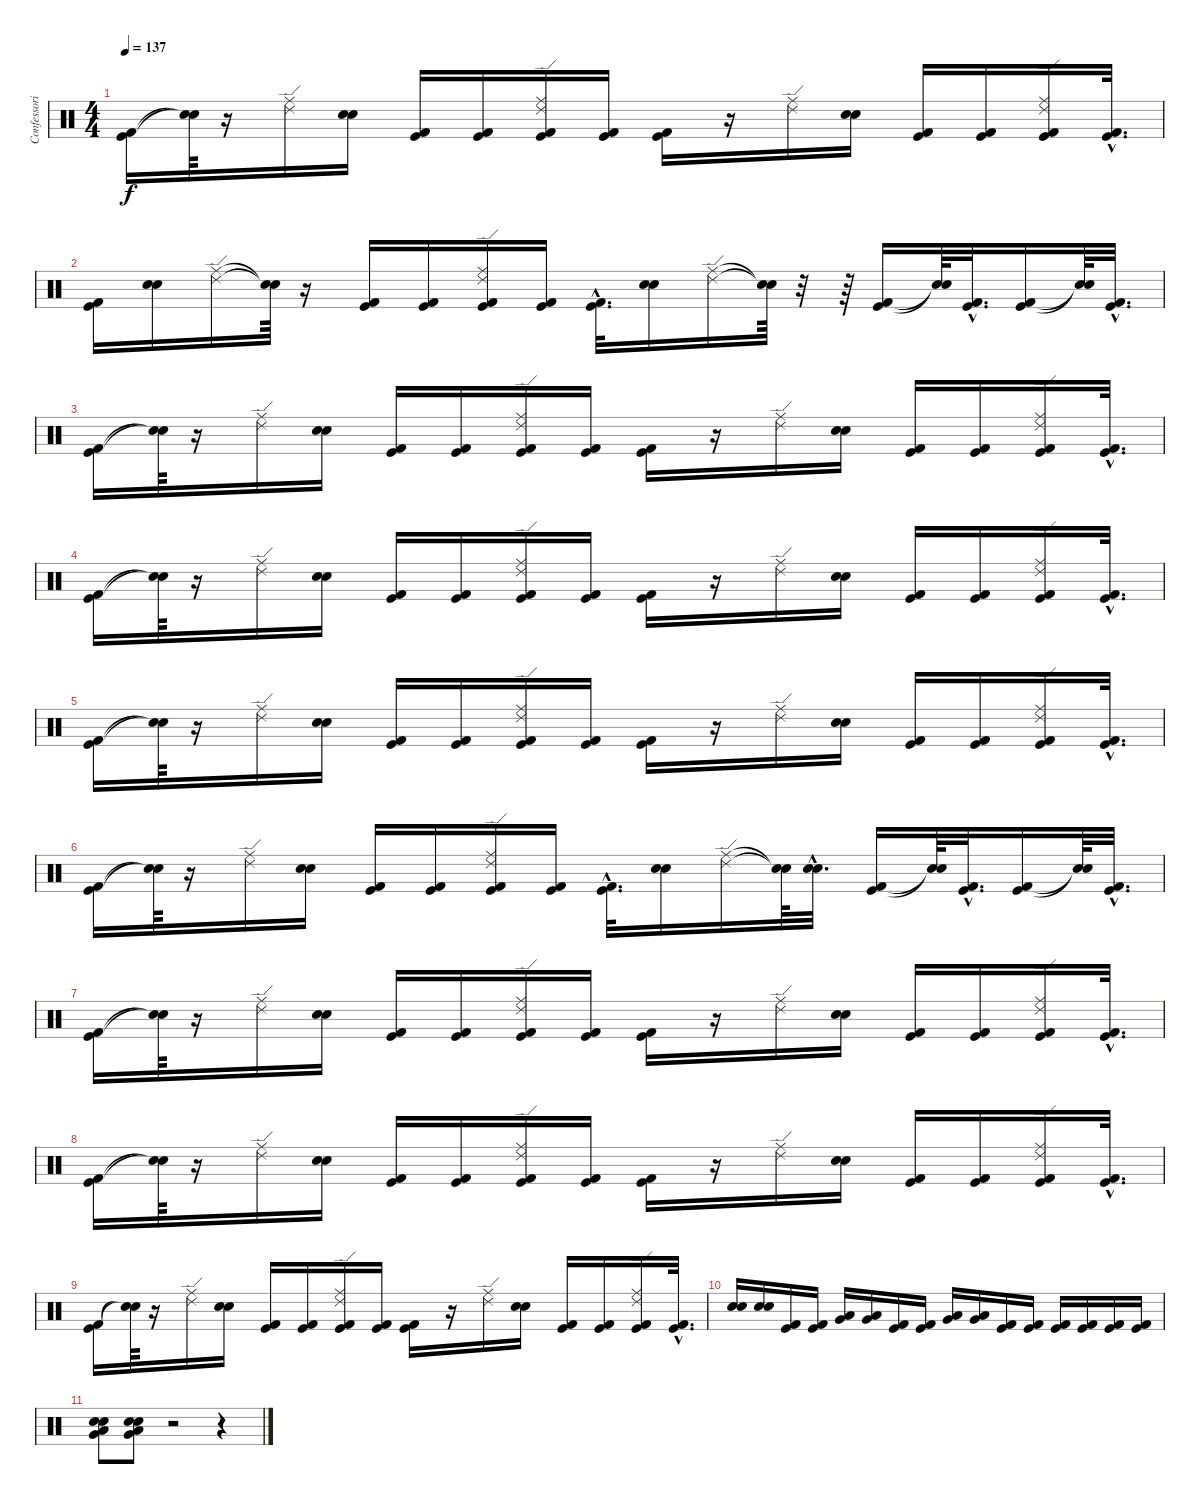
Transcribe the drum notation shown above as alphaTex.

\track ("Confessori" "Confessori") {instrument percussion}
\staff {score}
\articulation defaults
\ts (4 4)
\tempo 137
\clef neutral
\ks c
("Kick (hit) 2" "Kick (hit)").16{dy f} ("Snare (hit)"{t} "Snare (hit)"{t}).64 r.16 ("Ride (middle)" "Ride (edge) 2").16 ("Electric Snare (hit)" "Snare (hit) 2").16 ("Kick (hit) 2" "Kick (hit)").16 ("Kick (hit) 2" "Kick (hit)").16 ("Ride (middle)" "Ride (edge) 2" "Kick (hit) 2" "Kick (hit)").16 ("Kick (hit) 2" "Kick (hit)").16 ("Kick (hit) 2" "Kick (hit)").16 r.16 ("Ride (middle)" "Ride (edge) 2").16 ("Electric Snare (hit)" "Snare (hit) 2").16 ("Kick (hit) 2" "Kick (hit)").16 ("Kick (hit) 2" "Kick (hit)").16 ("Ride (middle)" "Ride (edge) 2" "Kick (hit) 2" "Kick (hit)").16 ("Kick (hit) 2"{hac} "Kick (hit)"{hac}).32{d} |
("Kick (hit) 2" "Kick (hit)").16 ("Electric Snare (hit)" "Snare (hit) 2").16 ("Ride (middle)" "Ride (edge) 2").16 ("Snare (hit)"{t} "Snare (hit)"{t}).64 r.16 ("Kick (hit) 2" "Kick (hit)").16 ("Kick (hit) 2" "Kick (hit)").16 ("Ride (middle)" "Ride (edge) 2" "Kick (hit) 2" "Kick (hit)").16 ("Kick (hit) 2" "Kick (hit)").16 ("Kick (hit) 2"{hac} "Kick (hit)"{hac}).32{d} ("Electric Snare (hit)" "Snare (hit) 2").16 ("Ride (middle)" "Ride (edge) 2").16 ("Snare (hit)"{t} "Snare (hit)"{t}).64 r.32 r.64 ("Kick (hit) 2" "Kick (hit)").16 ("Snare (hit)"{t} "Snare (hit)"{t}).64 ("Kick (hit) 2"{hac} "Kick (hit)"{hac}).32{d} ("Kick (hit) 2" "Kick (hit)").16 ("Snare (hit)"{t} "Snare (hit)"{t}).64 ("Kick (hit) 2"{hac} "Kick (hit)"{hac}).32{d} |
("Kick (hit) 2" "Kick (hit)").16 ("Snare (hit)"{t} "Snare (hit)"{t}).64 r.16 ("Ride (middle)" "Ride (edge) 2").16 ("Electric Snare (hit)" "Snare (hit) 2").16 ("Kick (hit) 2" "Kick (hit)").16 ("Kick (hit) 2" "Kick (hit)").16 ("Ride (middle)" "Ride (edge) 2" "Kick (hit) 2" "Kick (hit)").16 ("Kick (hit) 2" "Kick (hit)").16 ("Kick (hit) 2" "Kick (hit)").16 r.16 ("Ride (middle)" "Ride (edge) 2").16 ("Electric Snare (hit)" "Snare (hit) 2").16 ("Kick (hit) 2" "Kick (hit)").16 ("Kick (hit) 2" "Kick (hit)").16 ("Ride (middle)" "Ride (edge) 2" "Kick (hit) 2" "Kick (hit)").16 ("Kick (hit) 2"{hac} "Kick (hit)"{hac}).32{d} |
("Kick (hit) 2" "Kick (hit)").16 ("Snare (hit)"{t} "Snare (hit)"{t}).64 r.16 ("Ride (middle)" "Ride (edge) 2").16 ("Electric Snare (hit)" "Snare (hit) 2").16 ("Kick (hit) 2" "Kick (hit)").16 ("Kick (hit) 2" "Kick (hit)").16 ("Ride (middle)" "Ride (edge) 2" "Kick (hit) 2" "Kick (hit)").16 ("Kick (hit) 2" "Kick (hit)").16 ("Kick (hit) 2" "Kick (hit)").16 r.16 ("Ride (middle)" "Ride (edge) 2").16 ("Electric Snare (hit)" "Snare (hit) 2").16 ("Kick (hit) 2" "Kick (hit)").16 ("Kick (hit) 2" "Kick (hit)").16 ("Ride (middle)" "Ride (edge) 2" "Kick (hit) 2" "Kick (hit)").16 ("Kick (hit) 2"{hac} "Kick (hit)"{hac}).32{d} |
("Kick (hit) 2" "Kick (hit)").16 ("Snare (hit)"{t} "Snare (hit)"{t}).64 r.16 ("Ride (middle)" "Ride (edge) 2").16 ("Electric Snare (hit)" "Snare (hit) 2").16 ("Kick (hit) 2" "Kick (hit)").16 ("Kick (hit) 2" "Kick (hit)").16 ("Ride (middle)" "Ride (edge) 2" "Kick (hit) 2" "Kick (hit)").16 ("Kick (hit) 2" "Kick (hit)").16 ("Kick (hit) 2" "Kick (hit)").16 r.16 ("Ride (middle)" "Ride (edge) 2").16 ("Electric Snare (hit)" "Snare (hit) 2").16 ("Kick (hit) 2" "Kick (hit)").16 ("Kick (hit) 2" "Kick (hit)").16 ("Ride (middle)" "Ride (edge) 2" "Kick (hit) 2" "Kick (hit)").16 ("Kick (hit) 2"{hac} "Kick (hit)"{hac}).32{d} |
("Kick (hit) 2" "Kick (hit)").16 ("Snare (hit)"{t} "Snare (hit)"{t}).64 r.16 ("Ride (middle)" "Ride (edge) 2").16 ("Electric Snare (hit)" "Snare (hit) 2").16 ("Kick (hit) 2" "Kick (hit)").16 ("Kick (hit) 2" "Kick (hit)").16 ("Ride (middle)" "Ride (edge) 2" "Kick (hit) 2" "Kick (hit)").16 ("Kick (hit) 2" "Kick (hit)").16 ("Kick (hit) 2"{hac} "Kick (hit)"{hac}).32{d} ("Electric Snare (hit)" "Snare (hit) 2").16 ("Ride (middle)" "Ride (edge) 2").16 ("Snare (hit)"{t} "Snare (hit)"{t}).64 ("Electric Snare (hit)"{hac} "Snare (hit) 2"{hac}).32{d} ("Kick (hit) 2" "Kick (hit)").16 ("Snare (hit)"{t} "Snare (hit)"{t}).64 ("Kick (hit) 2"{hac} "Kick (hit)"{hac}).32{d} ("Kick (hit) 2" "Kick (hit)").16 ("Snare (hit)"{t} "Snare (hit)"{t}).64 ("Kick (hit) 2"{hac} "Kick (hit)"{hac}).32{d} |
("Kick (hit) 2" "Kick (hit)").16 ("Snare (hit)"{t} "Snare (hit)"{t}).64 r.16 ("Ride (middle)" "Ride (edge) 2").16 ("Electric Snare (hit)" "Snare (hit) 2").16 ("Kick (hit) 2" "Kick (hit)").16 ("Kick (hit) 2" "Kick (hit)").16 ("Ride (middle)" "Ride (edge) 2" "Kick (hit) 2" "Kick (hit)").16 ("Kick (hit) 2" "Kick (hit)").16 ("Kick (hit) 2" "Kick (hit)").16 r.16 ("Ride (middle)" "Ride (edge) 2").16 ("Electric Snare (hit)" "Snare (hit) 2").16 ("Kick (hit) 2" "Kick (hit)").16 ("Kick (hit) 2" "Kick (hit)").16 ("Ride (middle)" "Ride (edge) 2" "Kick (hit) 2" "Kick (hit)").16 ("Kick (hit) 2"{hac} "Kick (hit)"{hac}).32{d} |
("Kick (hit) 2" "Kick (hit)").16 ("Snare (hit)"{t} "Snare (hit)"{t}).64 r.16 ("Ride (middle)" "Ride (edge) 2").16 ("Electric Snare (hit)" "Snare (hit) 2").16 ("Kick (hit) 2" "Kick (hit)").16 ("Kick (hit) 2" "Kick (hit)").16 ("Ride (middle)" "Ride (edge) 2" "Kick (hit) 2" "Kick (hit)").16 ("Kick (hit) 2" "Kick (hit)").16 ("Kick (hit) 2" "Kick (hit)").16 r.16 ("Ride (middle)" "Ride (edge) 2").16 ("Electric Snare (hit)" "Snare (hit) 2").16 ("Kick (hit) 2" "Kick (hit)").16 ("Kick (hit) 2" "Kick (hit)").16 ("Ride (middle)" "Ride (edge) 2" "Kick (hit) 2" "Kick (hit)").16 ("Kick (hit) 2"{hac} "Kick (hit)"{hac}).32{d} |
("Kick (hit) 2" "Kick (hit)").16 ("Snare (hit)"{t} "Snare (hit)"{t}).64 r.16 ("Ride (middle)" "Ride (edge) 2").16 ("Electric Snare (hit)" "Snare (hit) 2").16 ("Kick (hit) 2" "Kick (hit)").16 ("Kick (hit) 2" "Kick (hit)").16 ("Ride (middle)" "Ride (edge) 2" "Kick (hit) 2" "Kick (hit)").16 ("Kick (hit) 2" "Kick (hit)").16 ("Kick (hit) 2" "Kick (hit)").16 r.16 ("Ride (middle)" "Ride (edge) 2").16 ("Electric Snare (hit)" "Snare (hit) 2").16 ("Kick (hit) 2" "Kick (hit)").16 ("Kick (hit) 2" "Kick (hit)").16 ("Ride (middle)" "Ride (edge) 2" "Kick (hit) 2" "Kick (hit)").16 ("Kick (hit) 2"{hac} "Kick (hit)"{hac}).32{d} |
("Electric Snare (hit)" "Snare (hit) 2").16 ("Electric Snare (hit)" "Snare (hit) 2").16 ("Kick (hit) 2" "Kick (hit)").16 ("Kick (hit) 2" "Kick (hit)").16 ("Very Low Tom (hit)" "Low Tom (hit)").16 ("Very Low Tom (hit)" "Low Tom (hit)").16 ("Kick (hit) 2" "Kick (hit)").16 ("Kick (hit) 2" "Kick (hit)").16 ("Very Low Tom (hit)" "Low Floor Tom (hit)").16 ("Low Floor Tom (hit)" "Very Low Tom (hit)").16 ("Kick (hit) 2" "Kick (hit)").16 ("Kick (hit) 2" "Kick (hit)").16 ("Kick (hit) 2" "Kick (hit)").16 ("Kick (hit) 2" "Kick (hit)").16 ("Kick (hit) 2" "Kick (hit)").16 ("Kick (hit) 2" "Kick (hit)").16 |
("Low Tom (hit)" "Very Low Tom (hit)" "Electric Snare (hit)" "Snare (hit) 2").8 ("Low Tom (hit)" "Very Low Tom (hit)" "Electric Snare (hit)" "Snare (hit) 2").8 r.2 r.4
